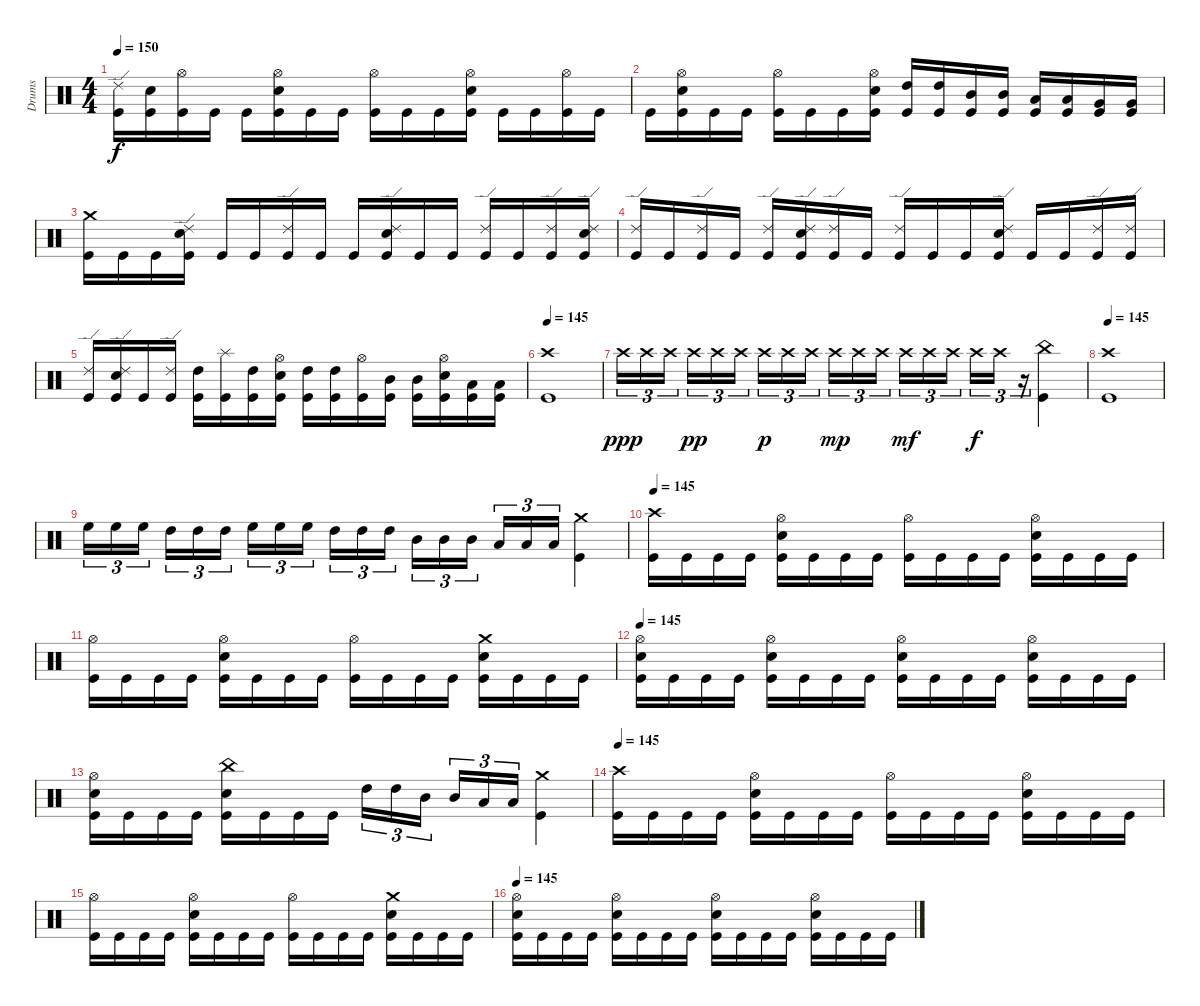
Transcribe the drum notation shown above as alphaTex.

\track ("Drums" "Drums") {instrument percussion}
\staff {score}
\articulation defaults
\ts (4 4)
\tempo 150
\clef neutral
\ks c
("Ride (edge) 2" "Kick (hit)").16{dy f} ("Electric Snare (hit)" "Kick (hit)").16 ("Hi-Hat (open)" "Kick (hit)").16 "Kick (hit)".16 "Kick (hit)".16 ("Hi-Hat (open)" "Electric Snare (hit)" "Kick (hit)").16 "Kick (hit)".16 "Kick (hit)".16 ("Hi-Hat (open)" "Kick (hit)").16 "Kick (hit)".16 "Kick (hit)".16 ("Hi-Hat (open)" "Electric Snare (hit)" "Kick (hit)").16 "Kick (hit)".16 "Kick (hit)".16 ("Hi-Hat (open)" "Kick (hit)").16 "Kick (hit)".16 |
"Kick (hit)".16 ("Hi-Hat (open)" "Electric Snare (hit)" "Kick (hit)").16 "Kick (hit)".16 "Kick (hit)".16 ("Hi-Hat (open)" "Kick (hit)").16 "Kick (hit)".16 "Kick (hit)".16 ("Hi-Hat (open)" "Electric Snare (hit)" "Kick (hit)").16 ("High Tom (hit)" "Kick (hit)").16 ("High Tom (hit)" "Kick (hit)").16 ("Mid Tom (hit)" "Kick (hit)").16 ("Mid Tom (hit)" "Kick (hit)").16 ("Low Tom (hit)" "Kick (hit)").16 ("Low Tom (hit)" "Kick (hit)").16 ("Very Low Tom (hit)" "Kick (hit)").16 ("Very Low Tom (hit)" "Kick (hit)").16 |
("Crash medium (hit)" "Kick (hit)").16 "Kick (hit)".16 "Kick (hit)".16 ("Ride (edge) 2" "Electric Snare (hit)" "Kick (hit)").16 "Kick (hit)".16 "Kick (hit)".16 ("Ride (edge) 2" "Kick (hit)").16 "Kick (hit)".16 "Kick (hit)".16 ("Ride (edge) 2" "Electric Snare (hit)" "Kick (hit)").16 "Kick (hit)".16 "Kick (hit)".16 ("Ride (edge) 2" "Kick (hit)").16 "Kick (hit)".16 ("Ride (edge) 2" "Kick (hit)").16 ("Ride (edge) 2" "Electric Snare (hit)" "Kick (hit)").16 |
("Ride (edge) 2" "Kick (hit)").16 "Kick (hit)".16 ("Ride (edge) 2" "Kick (hit)").16 "Kick (hit)".16 ("Ride (edge) 2" "Kick (hit)").16 ("Ride (edge) 2" "Electric Snare (hit)" "Kick (hit)").16 ("Ride (edge) 2" "Kick (hit)").16 "Kick (hit)".16 ("Ride (edge) 2" "Kick (hit)").16 "Kick (hit)".16 "Kick (hit)".16 ("Ride (edge) 2" "Electric Snare (hit)" "Kick (hit)").16 "Kick (hit)".16 "Kick (hit)".16 ("Ride (edge) 2" "Kick (hit)").16 ("Ride (edge) 2" "Kick (hit)").16 |
("Ride (edge) 2" "Kick (hit)").16 ("Ride (edge) 2" "Electric Snare (hit)" "Kick (hit)").16 "Kick (hit)".16 ("Ride (edge) 2" "Kick (hit)").16 ("High Tom (hit)" "Kick (hit)").16 ("Splash (hit)" "Kick (hit)").16 ("High Tom (hit)" "Kick (hit)").16 ("Hi-Hat (open)" "Electric Snare (hit)" "Kick (hit)").16 ("High Tom (hit)" "Kick (hit)").16 ("High Tom (hit)" "Kick (hit)").16 ("Hi-Hat (open)" "Kick (hit)").16 ("Mid Tom (hit)" "Kick (hit)").16 ("Mid Tom (hit)" "Kick (hit)").16 ("Hi-Hat (open)" "Electric Snare (hit)" "Kick (hit)").16 ("Low Tom (hit)" "Kick (hit)").16 ("Low Tom (hit)" "Kick (hit)").16 |
\tempo 145
("Crash high (hit)" "Kick (hit)").1 |
"Crash high (hit)".16{tu (3 2) dy ppp} "Crash high (hit)".16{tu (3 2)} "Crash high (hit)".16{tu (3 2)} "Crash high (hit)".16{tu (3 2) dy pp} "Crash high (hit)".16{tu (3 2)} "Crash high (hit)".16{tu (3 2)} "Crash high (hit)".16{tu (3 2) dy p} "Crash high (hit)".16{tu (3 2)} "Crash high (hit)".16{tu (3 2)} "Crash high (hit)".16{tu (3 2) dy mp} "Crash high (hit)".16{tu (3 2)} "Crash high (hit)".16{tu (3 2)} "Crash high (hit)".16{tu (3 2) dy mf} "Crash high (hit)".16{tu (3 2)} "Crash high (hit)".16{tu (3 2)} "Crash high (hit)".16{tu (3 2) dy f} "Crash high (hit)".16{tu (3 2)} r.16{tu (3 2)} ("Kick (hit)" "China (hit)").4 |
\tempo 145
("Crash high (hit)" "Kick (hit)").1 |
"High Floor Tom (hit)".16{tu (3 2)} "High Floor Tom (hit)".16{tu (3 2)} "High Floor Tom (hit)".16{tu (3 2)} "High Tom (hit)".16{tu (3 2)} "High Tom (hit)".16{tu (3 2)} "High Tom (hit)".16{tu (3 2)} "High Floor Tom (hit)".16{tu (3 2)} "High Floor Tom (hit)".16{tu (3 2)} "High Floor Tom (hit)".16{tu (3 2)} "High Tom (hit)".16{tu (3 2)} "High Tom (hit)".16{tu (3 2)} "High Tom (hit)".16{tu (3 2)} "Mid Tom (hit)".16{tu (3 2)} "Mid Tom (hit)".16{tu (3 2)} "Mid Tom (hit)".16{tu (3 2)} "Low Tom (hit)".16{tu (3 2)} "Low Tom (hit)".16{tu (3 2)} "Low Tom (hit)".16{tu (3 2)} ("Kick (hit)" "Crash medium (hit)").4 |
\tempo 145
("Crash high (hit)" "Kick (hit)").16 "Kick (hit)".16 "Kick (hit)".16 "Kick (hit)".16 ("Hi-Hat (open)" "Electric Snare (hit)" "Kick (hit)").16 "Kick (hit)".16 "Kick (hit)".16 "Kick (hit)".16 ("Hi-Hat (open)" "Kick (hit)").16 "Kick (hit)".16 "Kick (hit)".16 "Kick (hit)".16 ("Hi-Hat (open)" "Electric Snare (hit)" "Kick (hit)").16 "Kick (hit)".16 "Kick (hit)".16 "Kick (hit)".16 |
("Hi-Hat (open)" "Kick (hit)").16 "Kick (hit)".16 "Kick (hit)".16 "Kick (hit)".16 ("Hi-Hat (open)" "Electric Snare (hit)" "Kick (hit)").16 "Kick (hit)".16 "Kick (hit)".16 "Kick (hit)".16 ("Hi-Hat (open)" "Kick (hit)").16 "Kick (hit)".16 "Kick (hit)".16 "Kick (hit)".16 ("Crash medium (hit)" "Electric Snare (hit)" "Kick (hit)").16 "Kick (hit)".16 "Kick (hit)".16 "Kick (hit)".16 |
\tempo 145
("Hi-Hat (open)" "Electric Snare (hit)" "Kick (hit)").16 "Kick (hit)".16 "Kick (hit)".16 "Kick (hit)".16 ("Hi-Hat (open)" "Electric Snare (hit)" "Kick (hit)").16 "Kick (hit)".16 "Kick (hit)".16 "Kick (hit)".16 ("Hi-Hat (open)" "Electric Snare (hit)" "Kick (hit)").16 "Kick (hit)".16 "Kick (hit)".16 "Kick (hit)".16 ("Hi-Hat (open)" "Electric Snare (hit)" "Kick (hit)").16 "Kick (hit)".16 "Kick (hit)".16 "Kick (hit)".16 |
("Hi-Hat (open)" "Electric Snare (hit)" "Kick (hit)").16 "Kick (hit)".16 "Kick (hit)".16 "Kick (hit)".16 ("China (hit)" "Electric Snare (hit)" "Kick (hit)").16 "Kick (hit)".16 "Kick (hit)".16 "Kick (hit)".16 "High Tom (hit)".16{tu (3 2)} "High Tom (hit)".16{tu (3 2)} "Mid Tom (hit)".16{tu (3 2)} "Mid Tom (hit)".16{tu (3 2)} "Low Tom (hit)".16{tu (3 2)} "Low Tom (hit)".16{tu (3 2)} ("Kick (hit)" "Crash medium (hit)").4 |
\tempo 145
("Crash high (hit)" "Kick (hit)").16 "Kick (hit)".16 "Kick (hit)".16 "Kick (hit)".16 ("Hi-Hat (open)" "Electric Snare (hit)" "Kick (hit)").16 "Kick (hit)".16 "Kick (hit)".16 "Kick (hit)".16 ("Hi-Hat (open)" "Kick (hit)").16 "Kick (hit)".16 "Kick (hit)".16 "Kick (hit)".16 ("Hi-Hat (open)" "Electric Snare (hit)" "Kick (hit)").16 "Kick (hit)".16 "Kick (hit)".16 "Kick (hit)".16 |
("Hi-Hat (open)" "Kick (hit)").16 "Kick (hit)".16 "Kick (hit)".16 "Kick (hit)".16 ("Hi-Hat (open)" "Electric Snare (hit)" "Kick (hit)").16 "Kick (hit)".16 "Kick (hit)".16 "Kick (hit)".16 ("Hi-Hat (open)" "Kick (hit)").16 "Kick (hit)".16 "Kick (hit)".16 "Kick (hit)".16 ("Crash medium (hit)" "Electric Snare (hit)" "Kick (hit)").16 "Kick (hit)".16 "Kick (hit)".16 "Kick (hit)".16 |
\tempo 145
("Hi-Hat (open)" "Electric Snare (hit)" "Kick (hit)").16 "Kick (hit)".16 "Kick (hit)".16 "Kick (hit)".16 ("Hi-Hat (open)" "Electric Snare (hit)" "Kick (hit)").16 "Kick (hit)".16 "Kick (hit)".16 "Kick (hit)".16 ("Hi-Hat (open)" "Electric Snare (hit)" "Kick (hit)").16 "Kick (hit)".16 "Kick (hit)".16 "Kick (hit)".16 ("Hi-Hat (open)" "Electric Snare (hit)" "Kick (hit)").16 "Kick (hit)".16 "Kick (hit)".16 "Kick (hit)".16
